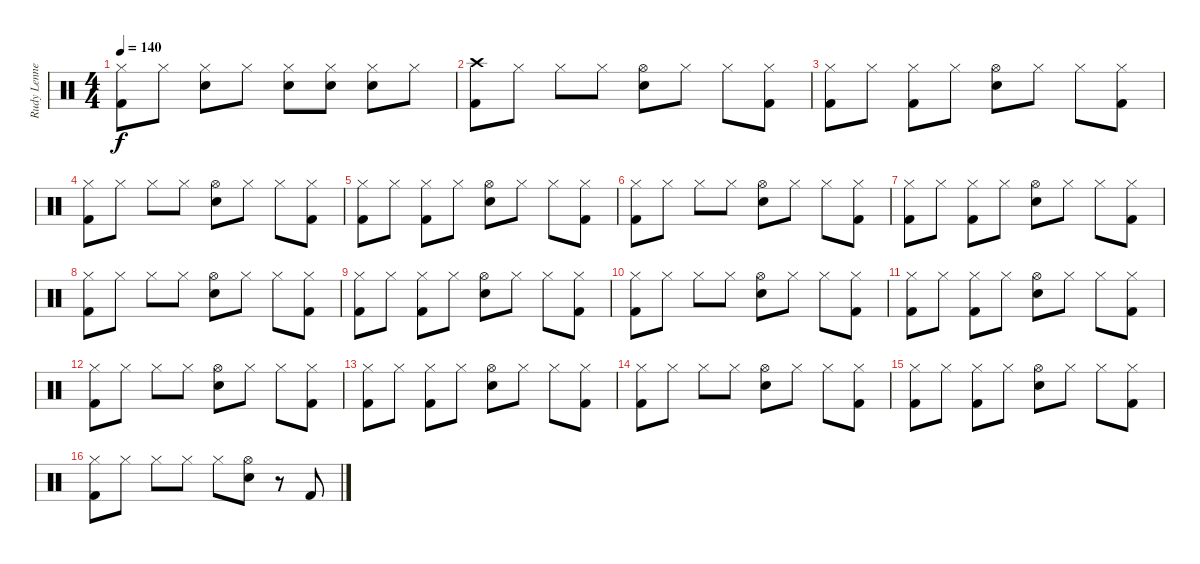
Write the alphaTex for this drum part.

\track ("Rudy Lenners" "Rudy Lenne") {instrument percussion}
\staff {score}
\articulation defaults
\ts (4 4)
\tempo 140
\clef neutral
\ks c
("Hi-Hat (closed)" "Kick (hit) 2").8{dy f} "Hi-Hat (closed)".8 ("Hi-Hat (closed)" "Snare (hit) 2").8 "Hi-Hat (closed)".8 ("Hi-Hat (closed)" "Snare (hit) 2").8 ("Hi-Hat (closed)" "Snare (hit) 2").8 ("Hi-Hat (closed)" "Snare (hit) 2").8 "Hi-Hat (closed)".8 |
("Crash high (hit)" "Kick (hit) 2").8 "Hi-Hat (closed)".8 "Hi-Hat (closed)".8 "Hi-Hat (closed)".8 ("Hi-Hat (open)" "Snare (hit) 2").8 "Hi-Hat (closed)".8 "Hi-Hat (closed)".8 ("Hi-Hat (closed)" "Kick (hit) 2").8 |
("Hi-Hat (closed)" "Kick (hit) 2").8 "Hi-Hat (closed)".8 ("Hi-Hat (closed)" "Kick (hit) 2").8 "Hi-Hat (closed)".8 ("Hi-Hat (open)" "Snare (hit) 2").8 "Hi-Hat (closed)".8 "Hi-Hat (closed)".8 ("Hi-Hat (closed)" "Kick (hit) 2").8 |
("Hi-Hat (closed)" "Kick (hit) 2").8 "Hi-Hat (closed)".8 "Hi-Hat (closed)".8 "Hi-Hat (closed)".8 ("Hi-Hat (open)" "Snare (hit) 2").8 "Hi-Hat (closed)".8 "Hi-Hat (closed)".8 ("Hi-Hat (closed)" "Kick (hit) 2").8 |
("Hi-Hat (closed)" "Kick (hit) 2").8 "Hi-Hat (closed)".8 ("Hi-Hat (closed)" "Kick (hit) 2").8 "Hi-Hat (closed)".8 ("Hi-Hat (open)" "Snare (hit) 2").8 "Hi-Hat (closed)".8 "Hi-Hat (closed)".8 ("Hi-Hat (closed)" "Kick (hit) 2").8 |
("Hi-Hat (closed)" "Kick (hit) 2").8 "Hi-Hat (closed)".8 "Hi-Hat (closed)".8 "Hi-Hat (closed)".8 ("Hi-Hat (open)" "Snare (hit) 2").8 "Hi-Hat (closed)".8 "Hi-Hat (closed)".8 ("Hi-Hat (closed)" "Kick (hit) 2").8 |
("Hi-Hat (closed)" "Kick (hit) 2").8 "Hi-Hat (closed)".8 ("Hi-Hat (closed)" "Kick (hit) 2").8 "Hi-Hat (closed)".8 ("Hi-Hat (open)" "Snare (hit) 2").8 "Hi-Hat (closed)".8 "Hi-Hat (closed)".8 ("Hi-Hat (closed)" "Kick (hit) 2").8 |
("Hi-Hat (closed)" "Kick (hit) 2").8 "Hi-Hat (closed)".8 "Hi-Hat (closed)".8 "Hi-Hat (closed)".8 ("Hi-Hat (open)" "Snare (hit) 2").8 "Hi-Hat (closed)".8 "Hi-Hat (closed)".8 ("Hi-Hat (closed)" "Kick (hit) 2").8 |
("Hi-Hat (closed)" "Kick (hit) 2").8 "Hi-Hat (closed)".8 ("Hi-Hat (closed)" "Kick (hit) 2").8 "Hi-Hat (closed)".8 ("Hi-Hat (open)" "Snare (hit) 2").8 "Hi-Hat (closed)".8 "Hi-Hat (closed)".8 ("Hi-Hat (closed)" "Kick (hit) 2").8 |
("Hi-Hat (closed)" "Kick (hit) 2").8 "Hi-Hat (closed)".8 "Hi-Hat (closed)".8 "Hi-Hat (closed)".8 ("Hi-Hat (open)" "Snare (hit) 2").8 "Hi-Hat (closed)".8 "Hi-Hat (closed)".8 ("Hi-Hat (closed)" "Kick (hit) 2").8 |
("Hi-Hat (closed)" "Kick (hit) 2").8 "Hi-Hat (closed)".8 ("Hi-Hat (closed)" "Kick (hit) 2").8 "Hi-Hat (closed)".8 ("Hi-Hat (open)" "Snare (hit) 2").8 "Hi-Hat (closed)".8 "Hi-Hat (closed)".8 ("Hi-Hat (closed)" "Kick (hit) 2").8 |
("Hi-Hat (closed)" "Kick (hit) 2").8 "Hi-Hat (closed)".8 "Hi-Hat (closed)".8 "Hi-Hat (closed)".8 ("Hi-Hat (open)" "Snare (hit) 2").8 "Hi-Hat (closed)".8 "Hi-Hat (closed)".8 ("Hi-Hat (closed)" "Kick (hit) 2").8 |
("Hi-Hat (closed)" "Kick (hit) 2").8 "Hi-Hat (closed)".8 ("Hi-Hat (closed)" "Kick (hit) 2").8 "Hi-Hat (closed)".8 ("Hi-Hat (open)" "Snare (hit) 2").8 "Hi-Hat (closed)".8 "Hi-Hat (closed)".8 ("Hi-Hat (closed)" "Kick (hit) 2").8 |
("Hi-Hat (closed)" "Kick (hit) 2").8 "Hi-Hat (closed)".8 "Hi-Hat (closed)".8 "Hi-Hat (closed)".8 ("Hi-Hat (open)" "Snare (hit) 2").8 "Hi-Hat (closed)".8 "Hi-Hat (closed)".8 ("Hi-Hat (closed)" "Kick (hit) 2").8 |
("Hi-Hat (closed)" "Kick (hit) 2").8 "Hi-Hat (closed)".8 ("Hi-Hat (closed)" "Kick (hit) 2").8 "Hi-Hat (closed)".8 ("Hi-Hat (open)" "Snare (hit) 2").8 "Hi-Hat (closed)".8 "Hi-Hat (closed)".8 ("Hi-Hat (closed)" "Kick (hit) 2").8 |
("Hi-Hat (closed)" "Kick (hit) 2").8 "Hi-Hat (closed)".8 "Hi-Hat (closed)".8 "Hi-Hat (closed)".8 "Hi-Hat (closed)".8 ("Hi-Hat (open)" "Snare (hit) 2").8 r.8 "Kick (hit) 2".8
